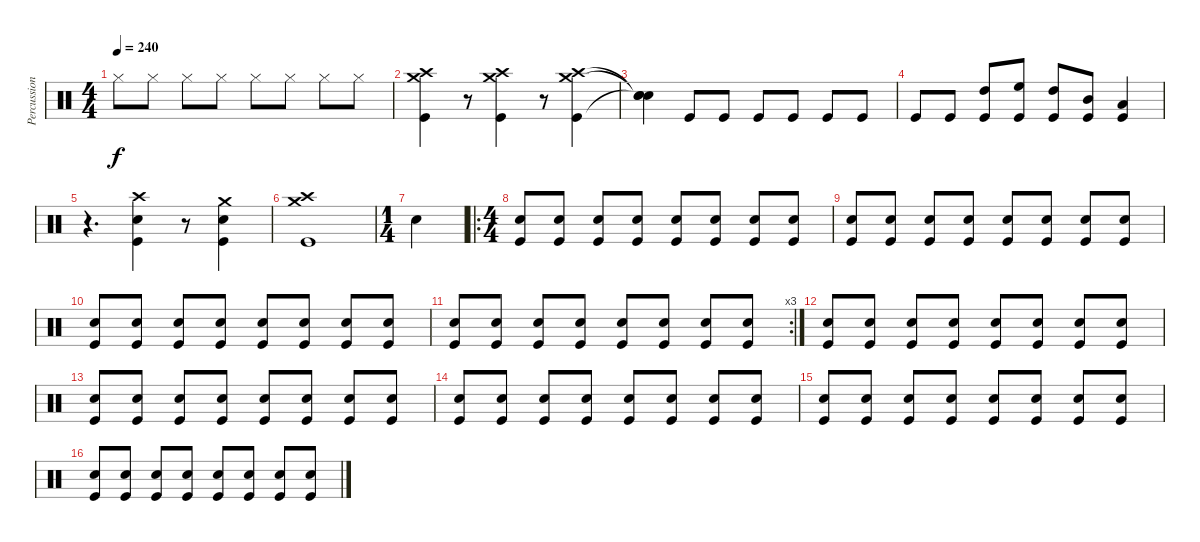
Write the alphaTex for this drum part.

\track ("Percussion" "Percussion") {instrument percussion}
\staff {score}
\articulation defaults
\ts (4 4)
\tempo 240
\clef neutral
\ks c "Hi-Hat (closed)".8{dy f} "Hi-Hat (closed)".8 "Hi-Hat (closed)".8 "Hi-Hat (closed)".8 "Hi-Hat (closed)".8 "Hi-Hat (closed)".8 "Hi-Hat (closed)".8 "Hi-Hat (closed)".8
|
("Crash medium (hit)" "Crash high (hit)" "Kick (hit)").4 r.8 ("Crash medium (hit)" "Crash high (hit)" "Kick (hit)").4 r.8 ("Crash medium (hit)" "Crash high (hit)" "Kick (hit)").4 |
("Snare (hit)"{t} "Snare (hit)"{t} "Snare (hit)"{t}).4 "Kick (hit)".8 "Kick (hit)".8 "Kick (hit)".8 "Kick (hit)".8 "Kick (hit)".8 "Kick (hit)".8 |
"Kick (hit)".8 "Kick (hit)".8 ("High Tom (hit)" "Kick (hit)").8 ("High Floor Tom (hit)" "Kick (hit)").8 ("High Tom (hit)" "Kick (hit)").8 ("Mid Tom (hit)" "Kick (hit)").8 ("Low Tom (hit)" "Kick (hit)").4 |
r.4{d} ("Crash high (hit)" "Snare (hit) 2" "Kick (hit)").4 r.8 ("Crash medium (hit)" "Snare (hit) 2" "Kick (hit)").4 |
("Crash medium (hit)" "Crash high (hit)" "Kick (hit)").1 |
\ts (1 4)
"Snare (hit) 2".4 |
\ro
\ts (4 4)
("Snare (hit) 2" "Kick (hit)").8{volume 10} ("Snare (hit) 2" "Kick (hit)").8 ("Snare (hit) 2" "Kick (hit)").8 ("Snare (hit) 2" "Kick (hit)").8 ("Snare (hit) 2" "Kick (hit)").8 ("Snare (hit) 2" "Kick (hit)").8 ("Snare (hit) 2" "Kick (hit)").8 ("Snare (hit) 2" "Kick (hit)").8 |
("Snare (hit) 2" "Kick (hit)").8{volume 10} ("Snare (hit) 2" "Kick (hit)").8 ("Snare (hit) 2" "Kick (hit)").8 ("Snare (hit) 2" "Kick (hit)").8 ("Snare (hit) 2" "Kick (hit)").8 ("Snare (hit) 2" "Kick (hit)").8 ("Snare (hit) 2" "Kick (hit)").8 ("Snare (hit) 2" "Kick (hit)").8 |
("Snare (hit) 2" "Kick (hit)").8{volume 10} ("Snare (hit) 2" "Kick (hit)").8 ("Snare (hit) 2" "Kick (hit)").8 ("Snare (hit) 2" "Kick (hit)").8 ("Snare (hit) 2" "Kick (hit)").8 ("Snare (hit) 2" "Kick (hit)").8 ("Snare (hit) 2" "Kick (hit)").8 ("Snare (hit) 2" "Kick (hit)").8 |
\rc 3
("Snare (hit) 2" "Kick (hit)").8{volume 10} ("Snare (hit) 2" "Kick (hit)").8 ("Snare (hit) 2" "Kick (hit)").8 ("Snare (hit) 2" "Kick (hit)").8 ("Snare (hit) 2" "Kick (hit)").8 ("Snare (hit) 2" "Kick (hit)").8 ("Snare (hit) 2" "Kick (hit)").8 ("Snare (hit) 2" "Kick (hit)").8 |
("Snare (hit) 2" "Kick (hit)").8{volume 10} ("Snare (hit) 2" "Kick (hit)").8 ("Snare (hit) 2" "Kick (hit)").8 ("Snare (hit) 2" "Kick (hit)").8 ("Snare (hit) 2" "Kick (hit)").8 ("Snare (hit) 2" "Kick (hit)").8 ("Snare (hit) 2" "Kick (hit)").8 ("Snare (hit) 2" "Kick (hit)").8 |
("Snare (hit) 2" "Kick (hit)").8{volume 10} ("Snare (hit) 2" "Kick (hit)").8 ("Snare (hit) 2" "Kick (hit)").8 ("Snare (hit) 2" "Kick (hit)").8 ("Snare (hit) 2" "Kick (hit)").8 ("Snare (hit) 2" "Kick (hit)").8 ("Snare (hit) 2" "Kick (hit)").8 ("Snare (hit) 2" "Kick (hit)").8 |
("Snare (hit) 2" "Kick (hit)").8{volume 10} ("Snare (hit) 2" "Kick (hit)").8 ("Snare (hit) 2" "Kick (hit)").8 ("Snare (hit) 2" "Kick (hit)").8 ("Snare (hit) 2" "Kick (hit)").8 ("Snare (hit) 2" "Kick (hit)").8 ("Snare (hit) 2" "Kick (hit)").8 ("Snare (hit) 2" "Kick (hit)").8 |
("Snare (hit) 2" "Kick (hit)").8{volume 10} ("Snare (hit) 2" "Kick (hit)").8 ("Snare (hit) 2" "Kick (hit)").8 ("Snare (hit) 2" "Kick (hit)").8 ("Snare (hit) 2" "Kick (hit)").8 ("Snare (hit) 2" "Kick (hit)").8 ("Snare (hit) 2" "Kick (hit)").8 ("Snare (hit) 2" "Kick (hit)").8 |
("Snare (hit) 2" "Kick (hit)").8{volume 10} ("Snare (hit) 2" "Kick (hit)").8 ("Snare (hit) 2" "Kick (hit)").8 ("Snare (hit) 2" "Kick (hit)").8 ("Snare (hit) 2" "Kick (hit)").8 ("Snare (hit) 2" "Kick (hit)").8 ("Snare (hit) 2" "Kick (hit)").8 ("Snare (hit) 2" "Kick (hit)").8
